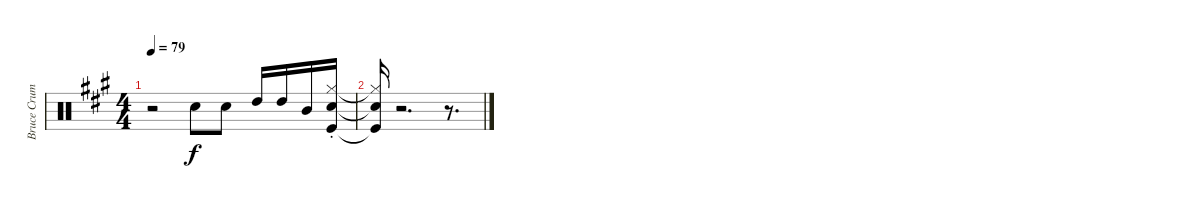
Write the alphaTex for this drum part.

\track ("Bruce Crump Drums" "Bruce Crum") {instrument percussion}
\staff {score}
\articulation defaults
\ts (4 4)
\tempo 79
\clef neutral
\ks a
r.2{dy f} "Snare (hit) 2".8 "Snare (hit) 2".8 "High Tom (hit)".16 "High Tom (hit)".16 "Mid Tom (hit)".16 ("Hi-Hat (closed)" "Snare (hit) 2" "Kick (hit)"{st}).16 |
("Hi-Hat (closed)"{t} "Snare (hit) 2"{t} "Kick (hit)"{t}).16 r.2{d} r.8{d}
